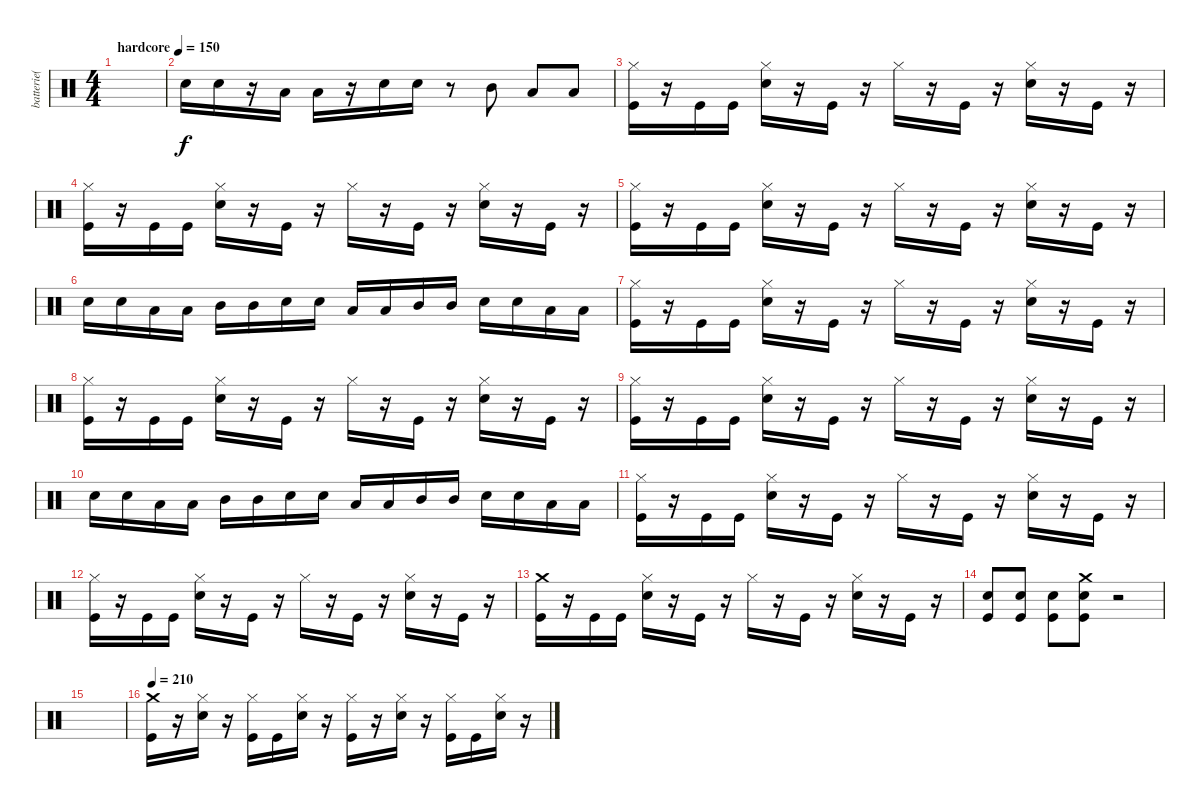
\track ("batterie( Jimmy ) " "batterie( ") {instrument percussion}
\staff {score}
\articulation defaults
\ts (4 4)
\tempo (150 "hardcore")
\clef neutral
\ks c
|
"Snare (hit) 2".16 "Snare (hit) 2".16 r.16 "Low Tom (hit)".16 "Low Tom (hit)".16 r.16 "Snare (hit) 2".16 "Snare (hit) 2".16 r.8 "Mid Tom (hit)".8 "Low Tom (hit)".8 "Low Floor Tom (hit)".8 |
("Hi-Hat (closed)" "Kick (hit)").16 r.16 "Kick (hit)".16 "Kick (hit)".16 ("Hi-Hat (closed)" "Snare (hit) 2").16 r.16 "Kick (hit)".16 r.16 "Hi-Hat (closed)".16 r.16 "Kick (hit)".16 r.16 ("Hi-Hat (closed)" "Snare (hit) 2").16 r.16 "Kick (hit)".16 r.16 |
("Hi-Hat (closed)" "Kick (hit)").16 r.16 "Kick (hit)".16 "Kick (hit)".16 ("Hi-Hat (closed)" "Snare (hit) 2").16 r.16 "Kick (hit)".16 r.16 "Hi-Hat (closed)".16 r.16 "Kick (hit)".16 r.16 ("Hi-Hat (closed)" "Snare (hit) 2").16 r.16 "Kick (hit)".16 r.16 |
("Hi-Hat (closed)" "Kick (hit)").16 r.16 "Kick (hit)".16 "Kick (hit)".16 ("Hi-Hat (closed)" "Snare (hit) 2").16 r.16 "Kick (hit)".16 r.16 "Hi-Hat (closed)".16 r.16 "Kick (hit)".16 r.16 ("Hi-Hat (closed)" "Snare (hit) 2").16 r.16 "Kick (hit)".16 r.16 |
"Snare (hit) 2".16 "Snare (hit) 2".16 "Low Tom (hit)".16 "Low Tom (hit)".16 "Mid Tom (hit)".16 "Mid Tom (hit)".16 "Snare (hit) 2".16 "Snare (hit) 2".16 "Low Tom (hit)".16 "Low Tom (hit)".16 "Mid Tom (hit)".16 "Mid Tom (hit)".16 "Snare (hit) 2".16 "Snare (hit) 2".16 "Low Tom (hit)".16 "Low Tom (hit)".16 |
("Hi-Hat (closed)" "Kick (hit)").16 r.16 "Kick (hit)".16 "Kick (hit)".16 ("Hi-Hat (closed)" "Snare (hit) 2").16 r.16 "Kick (hit)".16 r.16 "Hi-Hat (closed)".16 r.16 "Kick (hit)".16 r.16 ("Hi-Hat (closed)" "Snare (hit) 2").16 r.16 "Kick (hit)".16 r.16 |
("Hi-Hat (closed)" "Kick (hit)").16 r.16 "Kick (hit)".16 "Kick (hit)".16 ("Hi-Hat (closed)" "Snare (hit) 2").16 r.16 "Kick (hit)".16 r.16 "Hi-Hat (closed)".16 r.16 "Kick (hit)".16 r.16 ("Hi-Hat (closed)" "Snare (hit) 2").16 r.16 "Kick (hit)".16 r.16 |
("Hi-Hat (closed)" "Kick (hit)").16 r.16 "Kick (hit)".16 "Kick (hit)".16 ("Hi-Hat (closed)" "Snare (hit) 2").16 r.16 "Kick (hit)".16 r.16 "Hi-Hat (closed)".16 r.16 "Kick (hit)".16 r.16 ("Hi-Hat (closed)" "Snare (hit) 2").16 r.16 "Kick (hit)".16 r.16 |
"Snare (hit) 2".16 "Snare (hit) 2".16 "Low Tom (hit)".16 "Low Tom (hit)".16 "Mid Tom (hit)".16 "Mid Tom (hit)".16 "Snare (hit) 2".16 "Snare (hit) 2".16 "Low Tom (hit)".16 "Low Tom (hit)".16 "Mid Tom (hit)".16 "Mid Tom (hit)".16 "Snare (hit) 2".16 "Snare (hit) 2".16 "Low Tom (hit)".16 "Low Tom (hit)".16 |
("Hi-Hat (closed)" "Kick (hit)").16 r.16 "Kick (hit)".16 "Kick (hit)".16 ("Hi-Hat (closed)" "Snare (hit) 2").16 r.16 "Kick (hit)".16 r.16 "Hi-Hat (closed)".16 r.16 "Kick (hit)".16 r.16 ("Hi-Hat (closed)" "Snare (hit) 2").16 r.16 "Kick (hit)".16 r.16 |
("Hi-Hat (closed)" "Kick (hit)").16 r.16 "Kick (hit)".16 "Kick (hit)".16 ("Hi-Hat (closed)" "Snare (hit) 2").16 r.16 "Kick (hit)".16 r.16 "Hi-Hat (closed)".16 r.16 "Kick (hit)".16 r.16 ("Hi-Hat (closed)" "Snare (hit) 2").16 r.16 "Kick (hit)".16 r.16 |
("Crash medium (hit)" "Kick (hit)").16 r.16 "Kick (hit)".16 "Kick (hit)".16 ("Hi-Hat (closed)" "Snare (hit) 2").16 r.16 "Kick (hit)".16 r.16 "Hi-Hat (closed)".16 r.16 "Kick (hit)".16 r.16 ("Hi-Hat (closed)" "Snare (hit) 2").16 r.16 "Kick (hit)".16 r.16 |
("Snare (hit) 2" "Kick (hit)").8 ("Snare (hit) 2" "Kick (hit)").8 ("Snare (hit) 2" "Kick (hit)").8 ("Crash medium (hit)" "Snare (hit) 2" "Kick (hit)").8 r.2 |
|
\tempo 210
("Crash medium (hit)" "Kick (hit)").16 r.16 ("Hi-Hat (closed)" "Snare (hit) 2").16 r.16 ("Hi-Hat (closed)" "Kick (hit)").16 "Kick (hit)".16 ("Hi-Hat (closed)" "Snare (hit) 2").16 r.16 ("Hi-Hat (closed)" "Kick (hit)").16 r.16 ("Hi-Hat (closed)" "Snare (hit) 2").16 r.16 ("Hi-Hat (closed)" "Kick (hit)").16 "Kick (hit)".16 ("Hi-Hat (closed)" "Snare (hit) 2").16 r.16
